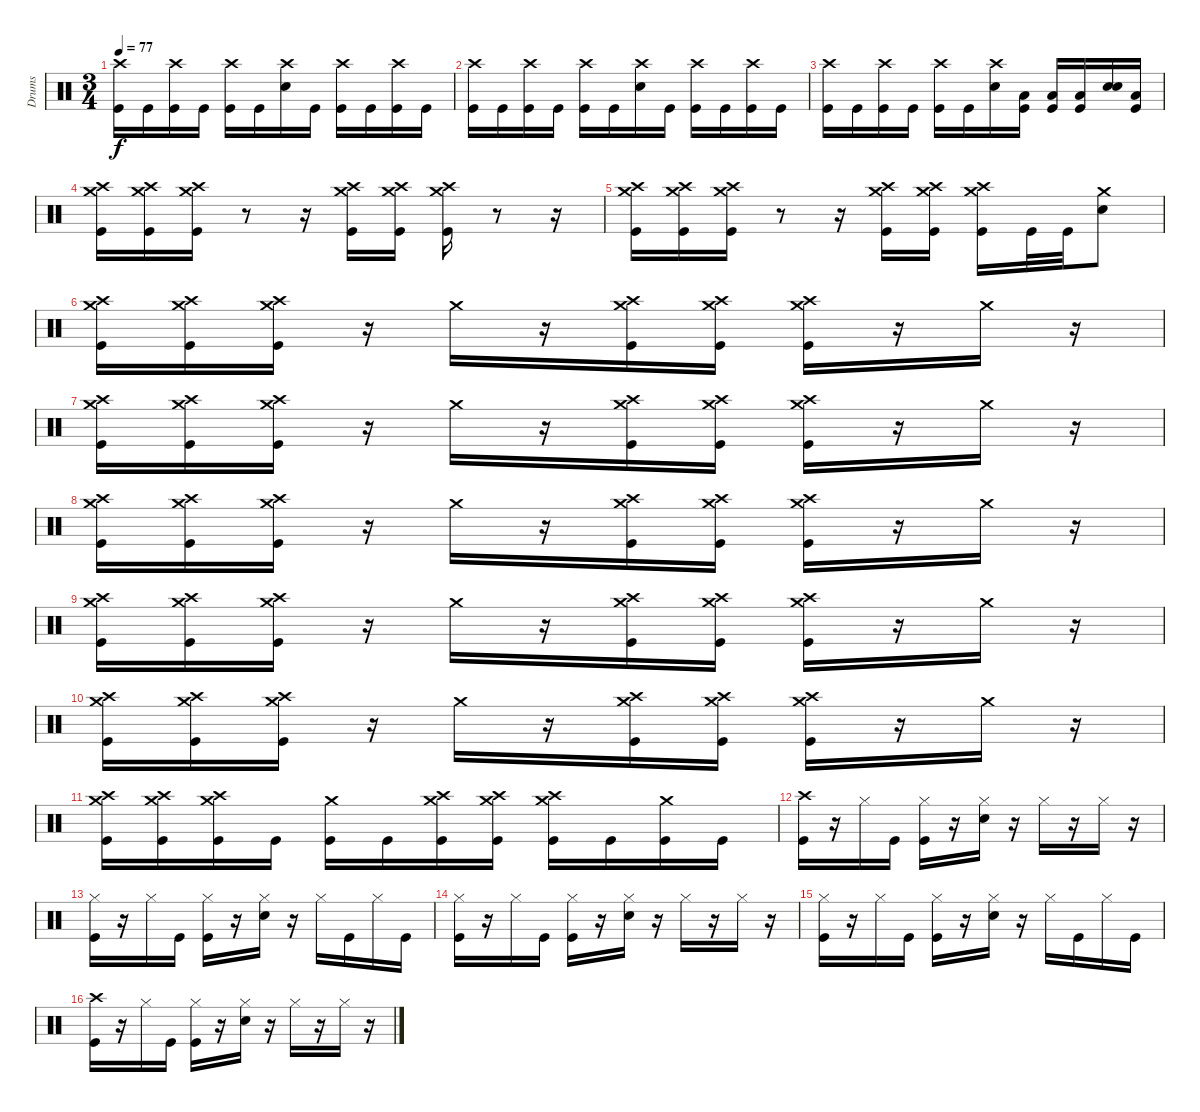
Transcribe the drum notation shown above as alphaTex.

\track ("Drums" "Drums") {instrument percussion}
\staff {score}
\articulation defaults
\ts (3 4)
\tempo 77
\clef neutral
\ks c
("Crash high (hit)" "Kick (hit)").16{dy f} "Kick (hit)".16 ("Crash high (hit)" "Kick (hit)").16 "Kick (hit)".16 ("Crash high (hit)" "Kick (hit)").16 "Kick (hit)".16 ("Crash high (hit)" "Snare (hit) 2").16 "Kick (hit)".16 ("Crash high (hit)" "Kick (hit)").16 "Kick (hit)".16 ("Crash high (hit)" "Kick (hit)").16 "Kick (hit)".16 |
("Crash high (hit)" "Kick (hit)").16 "Kick (hit)".16 ("Crash high (hit)" "Kick (hit)").16 "Kick (hit)".16 ("Crash high (hit)" "Kick (hit)").16 "Kick (hit)".16 ("Crash high (hit)" "Snare (hit) 2").16 "Kick (hit)".16 ("Crash high (hit)" "Kick (hit)").16 "Kick (hit)".16 ("Crash high (hit)" "Kick (hit)").16 "Kick (hit)".16 |
("Crash high (hit)" "Kick (hit)").16 "Kick (hit)".16 ("Crash high (hit)" "Kick (hit)").16 "Kick (hit)".16 ("Crash high (hit)" "Kick (hit)").16 "Kick (hit)".16 ("Crash high (hit)" "Snare (hit) 2").16 ("Low Floor Tom (hit)" "Kick (hit)").16 ("Low Floor Tom (hit)" "Kick (hit)").16 ("Low Floor Tom (hit)" "Kick (hit)").16 ("Snare (hit) 2" "Snare (hit) 2").16 ("Low Floor Tom (hit)" "Kick (hit)").16 |
("Crash medium (hit)" "Crash high (hit)" "Kick (hit)").16 ("Crash medium (hit)" "Crash high (hit)" "Kick (hit)").16 ("Crash medium (hit)" "Crash high (hit)" "Kick (hit)").16 r.8 r.16 ("Crash medium (hit)" "Crash high (hit)" "Kick (hit)").16 ("Crash medium (hit)" "Crash high (hit)" "Kick (hit)").16 ("Crash medium (hit)" "Crash high (hit)" "Kick (hit)").16 r.8 r.16 |
("Crash medium (hit)" "Crash high (hit)" "Kick (hit)").16 ("Crash medium (hit)" "Crash high (hit)" "Kick (hit)").16 ("Crash medium (hit)" "Crash high (hit)" "Kick (hit)").16 r.8 r.16 ("Crash medium (hit)" "Crash high (hit)" "Kick (hit)").16 ("Crash medium (hit)" "Crash high (hit)" "Kick (hit)").16 ("Crash medium (hit)" "Crash high (hit)" "Kick (hit)").16 "Kick (hit)".32 "Kick (hit)".32 ("Crash medium (hit)" "Snare (hit) 2").8 |
("Crash medium (hit)" "Crash high (hit)" "Kick (hit)").16 ("Crash medium (hit)" "Crash high (hit)" "Kick (hit)").16 ("Crash medium (hit)" "Crash high (hit)" "Kick (hit)").16 r.16 "Crash medium (hit)".16 r.16 ("Crash medium (hit)" "Crash high (hit)" "Kick (hit)").16 ("Crash medium (hit)" "Crash high (hit)" "Kick (hit)").16 ("Crash medium (hit)" "Crash high (hit)" "Kick (hit)").16 r.16 "Crash medium (hit)".16 r.16 |
("Crash medium (hit)" "Crash high (hit)" "Kick (hit)").16 ("Crash medium (hit)" "Crash high (hit)" "Kick (hit)").16 ("Crash medium (hit)" "Crash high (hit)" "Kick (hit)").16 r.16 "Crash medium (hit)".16 r.16 ("Crash medium (hit)" "Crash high (hit)" "Kick (hit)").16 ("Crash medium (hit)" "Crash high (hit)" "Kick (hit)").16 ("Crash medium (hit)" "Crash high (hit)" "Kick (hit)").16 r.16 "Crash medium (hit)".16 r.16 |
("Crash medium (hit)" "Crash high (hit)" "Kick (hit)").16 ("Crash medium (hit)" "Crash high (hit)" "Kick (hit)").16 ("Crash medium (hit)" "Crash high (hit)" "Kick (hit)").16 r.16 "Crash medium (hit)".16 r.16 ("Crash medium (hit)" "Crash high (hit)" "Kick (hit)").16 ("Crash medium (hit)" "Crash high (hit)" "Kick (hit)").16 ("Crash medium (hit)" "Crash high (hit)" "Kick (hit)").16 r.16 "Crash medium (hit)".16 r.16 |
("Crash medium (hit)" "Crash high (hit)" "Kick (hit)").16 ("Crash medium (hit)" "Crash high (hit)" "Kick (hit)").16 ("Crash medium (hit)" "Crash high (hit)" "Kick (hit)").16 r.16 "Crash medium (hit)".16 r.16 ("Crash medium (hit)" "Crash high (hit)" "Kick (hit)").16 ("Crash medium (hit)" "Crash high (hit)" "Kick (hit)").16 ("Crash medium (hit)" "Crash high (hit)" "Kick (hit)").16 r.16 "Crash medium (hit)".16 r.16 |
("Crash medium (hit)" "Crash high (hit)" "Kick (hit)").16 ("Crash medium (hit)" "Crash high (hit)" "Kick (hit)").16 ("Crash medium (hit)" "Crash high (hit)" "Kick (hit)").16 r.16 "Crash medium (hit)".16 r.16 ("Crash medium (hit)" "Crash high (hit)" "Kick (hit)").16 ("Crash medium (hit)" "Crash high (hit)" "Kick (hit)").16 ("Crash medium (hit)" "Crash high (hit)" "Kick (hit)").16 r.16 "Crash medium (hit)".16 r.16 |
("Crash medium (hit)" "Crash high (hit)" "Kick (hit)").16 ("Crash medium (hit)" "Crash high (hit)" "Kick (hit)").16 ("Crash medium (hit)" "Crash high (hit)" "Kick (hit)").16 "Kick (hit)".16 ("Crash medium (hit)" "Kick (hit)").16 "Kick (hit)".16 ("Crash medium (hit)" "Crash high (hit)" "Kick (hit)").16 ("Crash medium (hit)" "Crash high (hit)" "Kick (hit)").16 ("Crash medium (hit)" "Crash high (hit)" "Kick (hit)").16 "Kick (hit)".16 ("Crash medium (hit)" "Kick (hit)").16 "Kick (hit)".16 |
("Crash high (hit)" "Kick (hit)").16 r.16 "Hi-Hat (closed)".16 "Kick (hit)".16 ("Hi-Hat (closed)" "Kick (hit)").16 r.16 ("Hi-Hat (closed)" "Snare (hit) 2").16 r.16 "Hi-Hat (closed)".16 r.16 "Hi-Hat (closed)".16 r.16 |
("Hi-Hat (closed)" "Kick (hit)").16 r.16 "Hi-Hat (closed)".16 "Kick (hit)".16 ("Hi-Hat (closed)" "Kick (hit)").16 r.16 ("Hi-Hat (closed)" "Snare (hit) 2").16 r.16 "Hi-Hat (closed)".16 "Kick (hit)".16 "Hi-Hat (closed)".16 "Kick (hit)".16 |
("Hi-Hat (closed)" "Kick (hit)").16 r.16 "Hi-Hat (closed)".16 "Kick (hit)".16 ("Hi-Hat (closed)" "Kick (hit)").16 r.16 ("Hi-Hat (closed)" "Snare (hit) 2").16 r.16 "Hi-Hat (closed)".16 r.16 "Hi-Hat (closed)".16 r.16 |
("Hi-Hat (closed)" "Kick (hit)").16 r.16 "Hi-Hat (closed)".16 "Kick (hit)".16 ("Hi-Hat (closed)" "Kick (hit)").16 r.16 ("Hi-Hat (closed)" "Snare (hit) 2").16 r.16 "Hi-Hat (closed)".16 "Kick (hit)".16 "Hi-Hat (closed)".16 "Kick (hit)".16 |
("Crash high (hit)" "Kick (hit)").16 r.16 "Hi-Hat (closed)".16 "Kick (hit)".16 ("Hi-Hat (closed)" "Kick (hit)").16 r.16 ("Hi-Hat (closed)" "Snare (hit) 2").16 r.16 "Hi-Hat (closed)".16 r.16 "Hi-Hat (closed)".16 r.16
